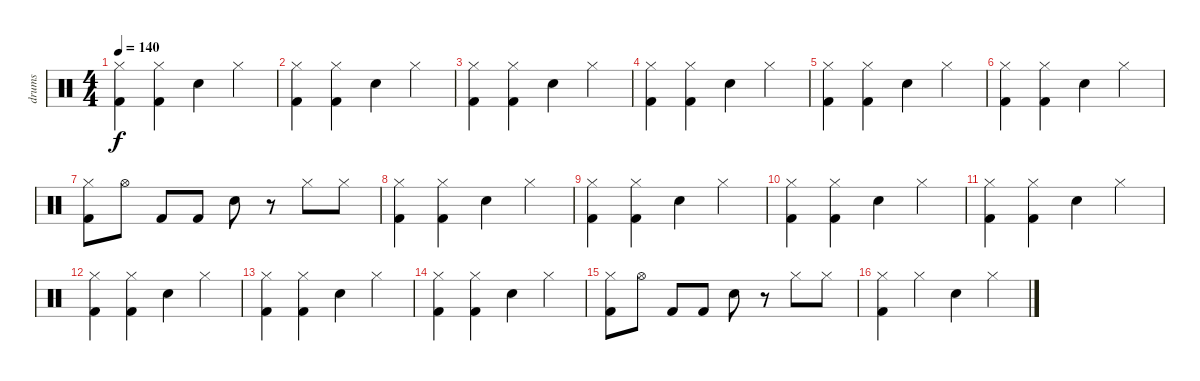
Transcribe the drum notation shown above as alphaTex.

\track ("drums" "drums") {instrument percussion}
\staff {score}
\articulation defaults
\ts (4 4)
\tempo 140
\clef neutral
\ks c
("Hi-Hat (closed)" "Kick (hit) 2").4{dy f} ("Hi-Hat (closed)" "Kick (hit) 2").4 "Snare (hit) 2".4 "Hi-Hat (closed)".4 |
("Hi-Hat (closed)" "Kick (hit) 2").4 ("Hi-Hat (closed)" "Kick (hit) 2").4 "Snare (hit) 2".4 "Hi-Hat (closed)".4 |
("Hi-Hat (closed)" "Kick (hit) 2").4 ("Hi-Hat (closed)" "Kick (hit) 2").4 "Snare (hit) 2".4 "Hi-Hat (closed)".4 |
("Hi-Hat (closed)" "Kick (hit) 2").4 ("Hi-Hat (closed)" "Kick (hit) 2").4 "Snare (hit) 2".4 "Hi-Hat (closed)".4 |
("Hi-Hat (closed)" "Kick (hit) 2").4 ("Hi-Hat (closed)" "Kick (hit) 2").4 "Snare (hit) 2".4 "Hi-Hat (closed)".4 |
("Hi-Hat (closed)" "Kick (hit) 2").4 ("Hi-Hat (closed)" "Kick (hit) 2").4 "Snare (hit) 2".4 "Hi-Hat (closed)".4 |
("Hi-Hat (closed)" "Kick (hit) 2").8 "Hi-Hat (open)".8 "Kick (hit) 2".8 "Kick (hit) 2".8 "Snare (hit) 2".8 r.8 "Hi-Hat (closed)".8 "Hi-Hat (closed)".8 |
("Hi-Hat (closed)" "Kick (hit) 2").4 ("Hi-Hat (closed)" "Kick (hit) 2").4 "Snare (hit) 2".4 "Hi-Hat (closed)".4 |
("Hi-Hat (closed)" "Kick (hit) 2").4 ("Hi-Hat (closed)" "Kick (hit) 2").4 "Snare (hit) 2".4 "Hi-Hat (closed)".4 |
("Hi-Hat (closed)" "Kick (hit) 2").4 ("Hi-Hat (closed)" "Kick (hit) 2").4 "Snare (hit) 2".4 "Hi-Hat (closed)".4 |
("Hi-Hat (closed)" "Kick (hit) 2").4 ("Hi-Hat (closed)" "Kick (hit) 2").4 "Snare (hit) 2".4 "Hi-Hat (closed)".4 |
("Hi-Hat (closed)" "Kick (hit) 2").4 ("Hi-Hat (closed)" "Kick (hit) 2").4 "Snare (hit) 2".4 "Hi-Hat (closed)".4 |
("Hi-Hat (closed)" "Kick (hit) 2").4 ("Hi-Hat (closed)" "Kick (hit) 2").4 "Snare (hit) 2".4 "Hi-Hat (closed)".4 |
("Hi-Hat (closed)" "Kick (hit) 2").4 ("Hi-Hat (closed)" "Kick (hit) 2").4 "Snare (hit) 2".4 "Hi-Hat (closed)".4 |
("Hi-Hat (closed)" "Kick (hit) 2").8 "Hi-Hat (open)".8 "Kick (hit) 2".8 "Kick (hit) 2".8 "Snare (hit) 2".8 r.8 "Hi-Hat (closed)".8 "Hi-Hat (closed)".8 |
("Hi-Hat (closed)" "Kick (hit) 2").4 "Hi-Hat (closed)".4 "Snare (hit) 2".4 "Hi-Hat (closed)".4
